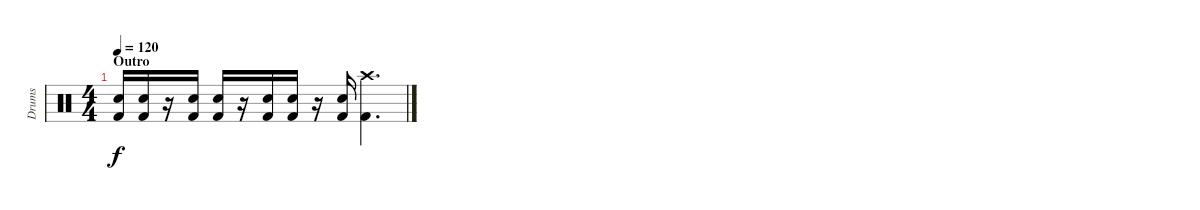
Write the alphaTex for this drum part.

\track ("Drums" "Drums") {instrument percussion}
\staff {score}
\articulation defaults
\ts (4 4)
\section ("" "Outro")
\tempo 120
\clef neutral
\ks c
("Kick (hit) 2" "Electric Snare (hit)").16{dy f} ("Kick (hit) 2" "Electric Snare (hit)").16 r.16 ("Kick (hit) 2" "Electric Snare (hit)").16 ("Kick (hit) 2" "Electric Snare (hit)").16 r.16 ("Kick (hit) 2" "Electric Snare (hit)").16 ("Kick (hit) 2" "Electric Snare (hit)").16 r.16 ("Electric Snare (hit)" "Kick (hit) 2").16 ("Crash high (hit)" "Kick (hit) 2").4{d}
